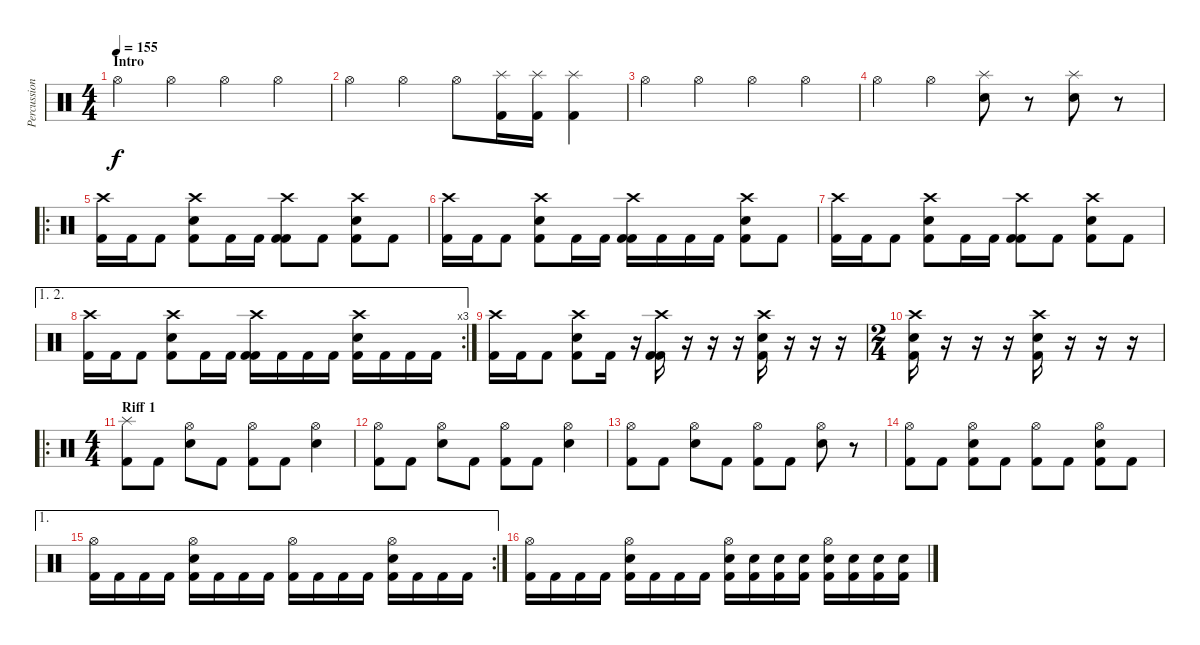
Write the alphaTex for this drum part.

\track ("Percussion" "Percussion") {instrument percussion}
\staff {score}
\articulation defaults
\ts (4 4)
\section ("" "Intro")
\tempo 155
\clef neutral
\ks c "Hi-Hat (open)".4{dy f} "Hi-Hat (open)".4 "Hi-Hat (open)".4 "Hi-Hat (open)".4
|
"Hi-Hat (open)".4 "Hi-Hat (open)".4 "Hi-Hat (open)".8 ("Splash (hit)" "Kick (hit) 2").16 ("Splash (hit)" "Kick (hit) 2").16 ("Splash (hit)" "Kick (hit) 2").4 |
"Hi-Hat (open)".4 "Hi-Hat (open)".4 "Hi-Hat (open)".4 "Hi-Hat (open)".4 |
"Hi-Hat (open)".4 "Hi-Hat (open)".4 ("Splash (hit)" "Snare (hit) 2").8 r.8 ("Splash (hit)" "Snare (hit) 2").8 r.8 |
\ro
("Crash high (hit)" "Kick (hit) 2").16 "Kick (hit) 2".16 "Kick (hit) 2".8 ("Crash high (hit)" "Snare (hit) 2" "Kick (hit) 2").8 "Kick (hit) 2".16 "Kick (hit) 2".16 ("Crash high (hit)" "Kick (hit) 2" "Kick (hit) 2").8 "Kick (hit) 2".8 ("Crash high (hit)" "Snare (hit) 2" "Kick (hit) 2").8 "Kick (hit) 2".8 |
("Crash high (hit)" "Kick (hit) 2").16 "Kick (hit) 2".16 "Kick (hit) 2".8 ("Crash high (hit)" "Snare (hit) 2" "Kick (hit) 2").8 "Kick (hit) 2".16 "Kick (hit) 2".16 ("Crash high (hit)" "Kick (hit) 2" "Kick (hit) 2").16 "Kick (hit) 2".16 "Kick (hit) 2".16 "Kick (hit) 2".16 ("Crash high (hit)" "Snare (hit) 2" "Kick (hit) 2").8 "Kick (hit) 2".8 |
("Crash high (hit)" "Kick (hit) 2").16 "Kick (hit) 2".16 "Kick (hit) 2".8 ("Crash high (hit)" "Snare (hit) 2" "Kick (hit) 2").8 "Kick (hit) 2".16 "Kick (hit) 2".16 ("Crash high (hit)" "Kick (hit) 2" "Kick (hit) 2").8 "Kick (hit) 2".8 ("Crash high (hit)" "Snare (hit) 2" "Kick (hit) 2").8 "Kick (hit) 2".8 |
\ae (1 2)
\rc 3
("Crash high (hit)" "Kick (hit) 2").16 "Kick (hit) 2".16 "Kick (hit) 2".8 ("Crash high (hit)" "Snare (hit) 2" "Kick (hit) 2").8 "Kick (hit) 2".16 "Kick (hit) 2".16 ("Crash high (hit)" "Kick (hit) 2" "Kick (hit) 2").16 "Kick (hit) 2".16 "Kick (hit) 2".16 "Kick (hit) 2".16 ("Crash high (hit)" "Snare (hit) 2" "Kick (hit) 2").16 "Kick (hit) 2".16 "Kick (hit) 2".16 "Kick (hit) 2".16 |
("Crash high (hit)" "Kick (hit) 2").16 "Kick (hit) 2".16 "Kick (hit) 2".8 ("Crash high (hit)" "Snare (hit) 2" "Kick (hit) 2").8 "Kick (hit) 2".16 r.16 ("Crash high (hit)" "Kick (hit) 2" "Kick (hit) 2").16 r.16 r.16 r.16 ("Crash high (hit)" "Snare (hit) 2" "Kick (hit) 2").16 r.16 r.16 r.16 |
\ts (2 4)
("Crash high (hit)" "Snare (hit) 2" "Kick (hit) 2").16 r.16 r.16 r.16 ("Crash high (hit)" "Snare (hit) 2" "Kick (hit) 2").16 r.16 r.16 r.16 |
\ro
\ts (4 4)
\section ("" "Riff 1")
("Splash (hit)" "Kick (hit) 2").8 "Kick (hit) 2".8 ("Hi-Hat (open)" "Snare (hit) 2").8 "Kick (hit) 2".8 ("Hi-Hat (open)" "Kick (hit) 2").8 "Kick (hit) 2".8 ("Hi-Hat (open)" "Snare (hit) 2").4 |
("Hi-Hat (open)" "Kick (hit) 2").8 "Kick (hit) 2".8 ("Hi-Hat (open)" "Snare (hit) 2").8 "Kick (hit) 2".8 ("Hi-Hat (open)" "Kick (hit) 2").8 "Kick (hit) 2".8 ("Hi-Hat (open)" "Snare (hit) 2").4 |
("Hi-Hat (open)" "Kick (hit) 2").8 "Kick (hit) 2".8 ("Hi-Hat (open)" "Snare (hit) 2").8 "Kick (hit) 2".8 ("Hi-Hat (open)" "Kick (hit) 2").8 "Kick (hit) 2".8 ("Hi-Hat (open)" "Snare (hit) 2").8 r.8 |
("Hi-Hat (open)" "Kick (hit) 2").8 "Kick (hit) 2".8 ("Hi-Hat (open)" "Snare (hit) 2" "Kick (hit) 2").8 "Kick (hit) 2".8 ("Hi-Hat (open)" "Kick (hit) 2").8 "Kick (hit) 2".8 ("Hi-Hat (open)" "Snare (hit) 2" "Kick (hit) 2").8 "Kick (hit) 2".8 |
\ae 1
\rc 2
("Hi-Hat (open)" "Kick (hit) 2").16 "Kick (hit) 2".16 "Kick (hit) 2".16 "Kick (hit) 2".16 ("Hi-Hat (open)" "Snare (hit) 2" "Kick (hit) 2").16 "Kick (hit) 2".16 "Kick (hit) 2".16 "Kick (hit) 2".16 ("Hi-Hat (open)" "Kick (hit) 2").16 "Kick (hit) 2".16 "Kick (hit) 2".16 "Kick (hit) 2".16 ("Hi-Hat (open)" "Snare (hit) 2" "Kick (hit) 2").16 "Kick (hit) 2".16 "Kick (hit) 2".16 "Kick (hit) 2".16 |
("Hi-Hat (open)" "Kick (hit) 2").16 "Kick (hit) 2".16 "Kick (hit) 2".16 "Kick (hit) 2".16 ("Hi-Hat (open)" "Snare (hit) 2" "Kick (hit) 2").16 "Kick (hit) 2".16 "Kick (hit) 2".16 "Kick (hit) 2".16 ("Hi-Hat (open)" "Snare (hit) 2" "Kick (hit) 2").16 ("Snare (hit) 2" "Kick (hit) 2").16 ("Snare (hit) 2" "Kick (hit) 2").16 ("Snare (hit) 2" "Kick (hit) 2").16 ("Hi-Hat (open)" "Snare (hit) 2" "Kick (hit) 2").16 ("Snare (hit) 2" "Kick (hit) 2").16 ("Snare (hit) 2" "Kick (hit) 2").16 ("Snare (hit) 2" "Kick (hit) 2").16
